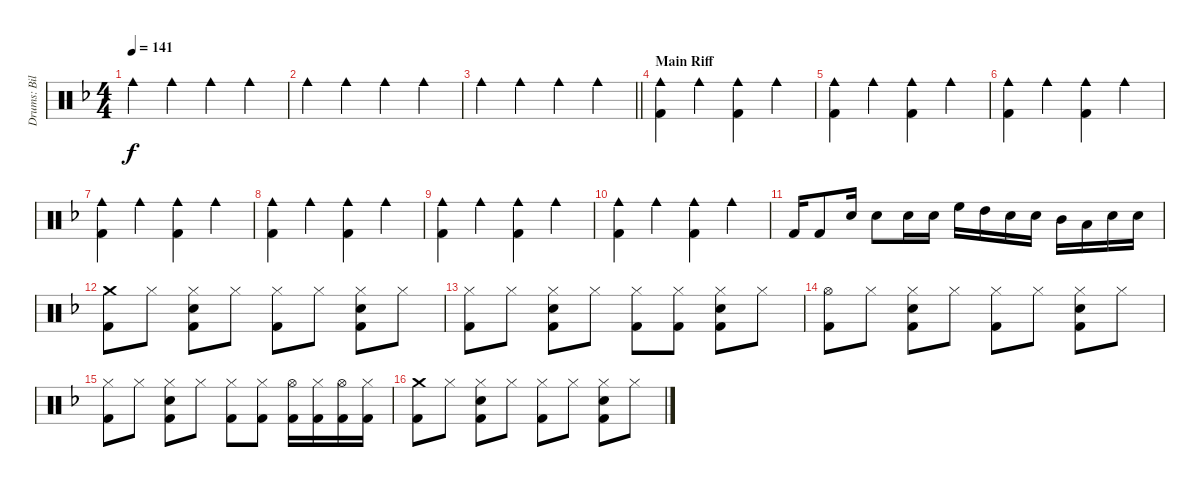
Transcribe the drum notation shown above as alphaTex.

\track ("Drums: Bill" "Drums: Bil") {instrument percussion}
\staff {score}
\articulation defaults
\ts (4 4)
\tempo 141
\clef neutral
\ks f "Cowbell medium (hit)".4{dy f} "Cowbell medium (hit)".4 "Cowbell medium (hit)".4 "Cowbell medium (hit)".4
|
"Cowbell medium (hit)".4 "Cowbell medium (hit)".4 "Cowbell medium (hit)".4 "Cowbell medium (hit)".4 |
\barLineRight lightlight "Cowbell medium (hit)".4 "Cowbell medium (hit)".4 "Cowbell medium (hit)".4 "Cowbell medium (hit)".4
|
\section ("" "Main Riff")
("Kick (hit) 2" "Cowbell medium (hit)").4 "Cowbell medium (hit)".4 ("Kick (hit) 2" "Cowbell medium (hit)").4 "Cowbell medium (hit)".4 |
("Kick (hit) 2" "Cowbell medium (hit)").4 "Cowbell medium (hit)".4 ("Kick (hit) 2" "Cowbell medium (hit)").4 "Cowbell medium (hit)".4 |
("Kick (hit) 2" "Cowbell medium (hit)").4 "Cowbell medium (hit)".4 ("Kick (hit) 2" "Cowbell medium (hit)").4 "Cowbell medium (hit)".4 |
("Kick (hit) 2" "Cowbell medium (hit)").4 "Cowbell medium (hit)".4 ("Kick (hit) 2" "Cowbell medium (hit)").4 "Cowbell medium (hit)".4 |
("Kick (hit) 2" "Cowbell medium (hit)").4 "Cowbell medium (hit)".4 ("Kick (hit) 2" "Cowbell medium (hit)").4 "Cowbell medium (hit)".4 |
("Kick (hit) 2" "Cowbell medium (hit)").4 "Cowbell medium (hit)".4 ("Kick (hit) 2" "Cowbell medium (hit)").4 "Cowbell medium (hit)".4 |
("Kick (hit) 2" "Cowbell medium (hit)").4 "Cowbell medium (hit)".4 ("Kick (hit) 2" "Cowbell medium (hit)").4 "Cowbell medium (hit)".4 |
"Kick (hit) 2".16 "Kick (hit) 2".8 "Electric Snare (hit)".16 "Electric Snare (hit)".8 "Snare (hit) 2".16 "Snare (hit) 2".16 "High Floor Tom (hit)".16 "High Tom (hit)".16 "Snare (hit) 2".16 "Snare (hit) 2".16 "Mid Tom (hit)".16 "Low Tom (hit)".16 "Snare (hit) 2".16 "Snare (hit) 2".16 |
("Crash medium (hit)" "Kick (hit) 2").8 "Hi-Hat (closed)".8 ("Hi-Hat (closed)" "Snare (hit) 2" "Kick (hit) 2").8 "Hi-Hat (closed)".8 ("Hi-Hat (closed)" "Kick (hit) 2").8 "Hi-Hat (closed)".8 ("Hi-Hat (closed)" "Snare (hit) 2" "Kick (hit) 2").8 "Hi-Hat (closed)".8 |
("Hi-Hat (closed)" "Kick (hit) 2").8 "Hi-Hat (closed)".8 ("Hi-Hat (closed)" "Snare (hit) 2" "Kick (hit) 2").8 "Hi-Hat (closed)".8 ("Hi-Hat (closed)" "Kick (hit) 2").8 ("Hi-Hat (closed)" "Kick (hit) 2").8 ("Hi-Hat (closed)" "Snare (hit) 2" "Kick (hit) 2").8 "Hi-Hat (closed)".8 |
("Hi-Hat (open)" "Kick (hit) 2").8 "Hi-Hat (closed)".8 ("Hi-Hat (closed)" "Snare (hit) 2" "Kick (hit) 2").8 "Hi-Hat (closed)".8 ("Hi-Hat (closed)" "Kick (hit) 2").8 "Hi-Hat (closed)".8 ("Hi-Hat (closed)" "Snare (hit) 2" "Kick (hit) 2").8 "Hi-Hat (closed)".8 |
("Hi-Hat (closed)" "Kick (hit) 2").8 "Hi-Hat (closed)".8 ("Hi-Hat (closed)" "Snare (hit) 2" "Kick (hit) 2").8 "Hi-Hat (closed)".8 ("Hi-Hat (closed)" "Kick (hit) 2").8 ("Hi-Hat (closed)" "Kick (hit) 2").8 ("Hi-Hat (open)" "Kick (hit) 2").16 ("Hi-Hat (closed)" "Kick (hit) 2").16 ("Hi-Hat (open)" "Kick (hit) 2").16 ("Hi-Hat (closed)" "Kick (hit) 2").16 |
("Crash medium (hit)" "Kick (hit) 2").8 "Hi-Hat (closed)".8 ("Hi-Hat (closed)" "Snare (hit) 2" "Kick (hit) 2").8 "Hi-Hat (closed)".8 ("Hi-Hat (closed)" "Kick (hit) 2").8 "Hi-Hat (closed)".8 ("Hi-Hat (closed)" "Snare (hit) 2" "Kick (hit) 2").8 "Hi-Hat (closed)".8
